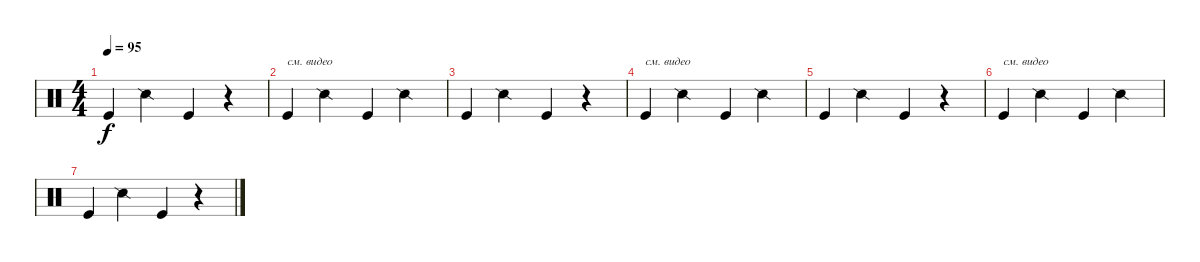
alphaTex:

\track "" {instrument percussion}
\staff {score}
\articulation defaults
\ts (4 4)
\tempo 95
\clef neutral
\ks c "Kick (hit)".4{dy f} "Snare (side stick) 2".4 "Kick (hit)".4
r.4 |
"Kick (hit)".4{txt "см. видео"} "Snare (side stick) 2".4 "Kick (hit)".4 "Snare (side stick) 2".4 |
"Kick (hit)".4 "Snare (side stick) 2".4 "Kick (hit)".4 r.4 |
"Kick (hit)".4{txt "см. видео"} "Snare (side stick) 2".4 "Kick (hit)".4 "Snare (side stick) 2".4 |
"Kick (hit)".4 "Snare (side stick) 2".4 "Kick (hit)".4 r.4 |
"Kick (hit)".4{txt "см. видео"} "Snare (side stick) 2".4 "Kick (hit)".4 "Snare (side stick) 2".4 |
"Kick (hit)".4 "Snare (side stick) 2".4 "Kick (hit)".4 r.4
